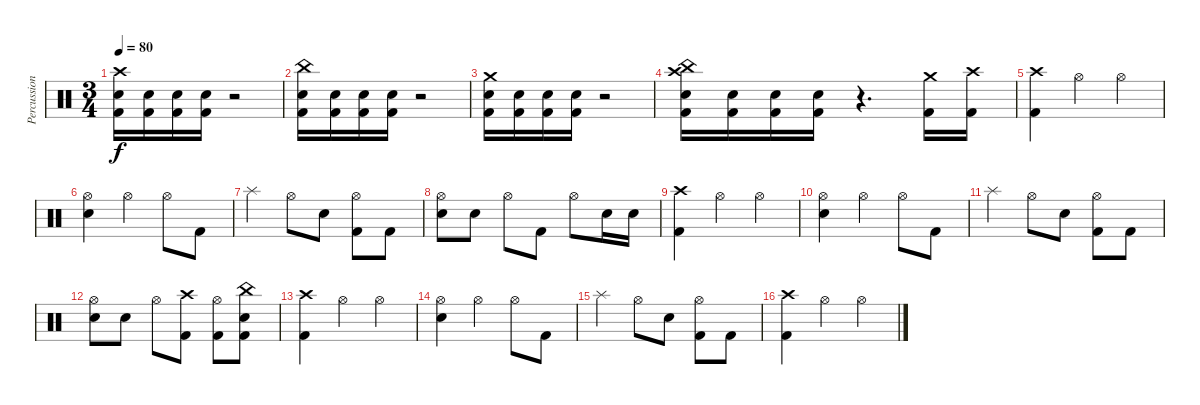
\track ("Percussion" "Percussion") {instrument percussion}
\staff {score}
\articulation defaults
\ts (3 4)
\tempo 80
\clef neutral
\ks c
("Crash high (hit)" "Electric Snare (hit)" "Kick (hit) 2").16{dy f} ("Electric Snare (hit)" "Kick (hit) 2").16 ("Electric Snare (hit)" "Kick (hit) 2").16 ("Electric Snare (hit)" "Kick (hit) 2").16 r.2 |
("China (hit)" "Electric Snare (hit)" "Kick (hit) 2").16 ("Electric Snare (hit)" "Kick (hit) 2").16 ("Electric Snare (hit)" "Kick (hit) 2").16 ("Electric Snare (hit)" "Kick (hit) 2").16 r.2 |
("Crash medium (hit)" "Electric Snare (hit)" "Kick (hit) 2").16 ("Electric Snare (hit)" "Kick (hit) 2").16 ("Electric Snare (hit)" "Kick (hit) 2").16 ("Electric Snare (hit)" "Kick (hit) 2").16 r.2 |
("Crash high (hit)" "China (hit)" "Electric Snare (hit)" "Kick (hit) 2").16 ("Electric Snare (hit)" "Kick (hit) 2").16 ("Electric Snare (hit)" "Kick (hit) 2").16 ("Electric Snare (hit)" "Kick (hit) 2").16 r.4{d} ("Crash medium (hit)" "Kick (hit) 2").16 ("Crash high (hit)" "Kick (hit) 2").16 |
("Crash high (hit)" "Kick (hit) 2").4 "Hi-Hat (open)".4 "Hi-Hat (open)".4 |
("Hi-Hat (open)" "Electric Snare (hit)").4 "Hi-Hat (open)".4 "Hi-Hat (open)".8 "Kick (hit) 2".8 |
"Splash (hit)".4 "Hi-Hat (open)".8 "Electric Snare (hit)".8 ("Hi-Hat (open)" "Kick (hit) 2").8 "Kick (hit) 2".8 |
("Hi-Hat (open)" "Electric Snare (hit)").8 "Electric Snare (hit)".8 "Hi-Hat (open)".8 "Kick (hit) 2".8 "Hi-Hat (open)".8 "Electric Snare (hit)".16 "Electric Snare (hit)".16 |
("Crash high (hit)" "Kick (hit) 2").4 "Hi-Hat (open)".4 "Hi-Hat (open)".4 |
("Hi-Hat (open)" "Electric Snare (hit)").4 "Hi-Hat (open)".4 "Hi-Hat (open)".8 "Kick (hit) 2".8 |
"Splash (hit)".4 "Hi-Hat (open)".8 "Electric Snare (hit)".8 ("Hi-Hat (open)" "Kick (hit) 2").8 "Kick (hit) 2".8 |
("Hi-Hat (open)" "Electric Snare (hit)").8 "Electric Snare (hit)".8 "Hi-Hat (open)".8 ("Crash high (hit)" "Kick (hit) 2").8 ("Hi-Hat (open)" "Kick (hit) 2").8 ("China (hit)" "Electric Snare (hit)" "Kick (hit) 2").8 |
("Crash high (hit)" "Kick (hit) 2").4 "Hi-Hat (open)".4 "Hi-Hat (open)".4 |
("Hi-Hat (open)" "Electric Snare (hit)").4 "Hi-Hat (open)".4 "Hi-Hat (open)".8 "Kick (hit) 2".8 |
"Splash (hit)".4 "Hi-Hat (open)".8 "Electric Snare (hit)".8 ("Hi-Hat (open)" "Kick (hit) 2").8 "Kick (hit) 2".8 |
("Crash high (hit)" "Kick (hit) 2").4 "Hi-Hat (open)".4 "Hi-Hat (open)".4
